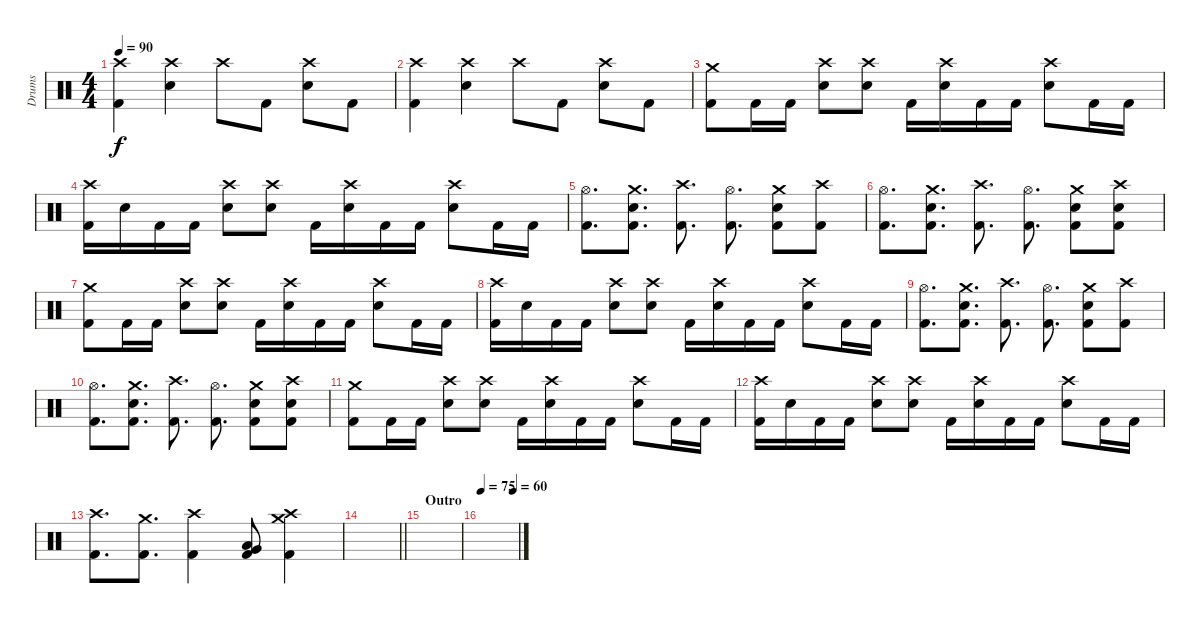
\track ("Drums" "Drums") {instrument percussion}
\staff {score}
\articulation defaults
\ts (4 4)
\tempo 90
\clef neutral
\ks c
("Crash high (hit)" "Kick (hit) 2").4{dy f} ("Snare (hit) 2" "Crash high (hit)").4 "Crash high (hit)".8 "Kick (hit) 2".8 ("Snare (hit) 2" "Crash high (hit)").8 "Kick (hit) 2".8 |
("Crash high (hit)" "Kick (hit) 2").4 ("Snare (hit) 2" "Crash high (hit)").4 "Crash high (hit)".8 "Kick (hit) 2".8 ("Snare (hit) 2" "Crash high (hit)").8 "Kick (hit) 2".8 |
("Crash medium (hit)" "Kick (hit) 2").8 "Kick (hit) 2".16 "Kick (hit) 2".16 ("Snare (hit) 2" "Crash high (hit)").8 ("Snare (hit) 2" "Crash high (hit)").8 "Kick (hit) 2".16 ("Snare (hit) 2" "Crash high (hit)").16 "Kick (hit) 2".16 "Kick (hit) 2".16 ("Snare (hit) 2" "Crash high (hit)").8 "Kick (hit) 2".16 "Kick (hit) 2".16 |
("Crash high (hit)" "Kick (hit) 2").16 "Snare (hit) 2".16 "Kick (hit) 2".16 "Kick (hit) 2".16 ("Snare (hit) 2" "Crash high (hit)").8 ("Snare (hit) 2" "Crash high (hit)").8 "Kick (hit) 2".16 ("Snare (hit) 2" "Crash high (hit)").16 "Kick (hit) 2".16 "Kick (hit) 2".16 ("Snare (hit) 2" "Crash high (hit)").8 "Kick (hit) 2".16 "Kick (hit) 2".16 |
("Hi-Hat (open)" "Kick (hit) 2").8{d} ("Snare (hit) 2" "Crash medium (hit)" "Kick (hit) 2").8{d} ("Crash high (hit)" "Kick (hit) 2").8{d} ("Hi-Hat (open)" "Kick (hit) 2").8{d} ("Snare (hit) 2" "Crash medium (hit)" "Kick (hit) 2").8 ("Crash high (hit)" "Kick (hit) 2").8 |
("Hi-Hat (open)" "Kick (hit) 2").8{d} ("Snare (hit) 2" "Crash medium (hit)" "Kick (hit) 2").8{d} ("Crash high (hit)" "Kick (hit) 2").8{d} ("Hi-Hat (open)" "Kick (hit) 2").8{d} ("Snare (hit) 2" "Crash medium (hit)" "Kick (hit) 2").8 ("Snare (hit) 2" "Crash high (hit)" "Kick (hit) 2").8 |
("Crash medium (hit)" "Kick (hit) 2").8 "Kick (hit) 2".16 "Kick (hit) 2".16 ("Snare (hit) 2" "Crash high (hit)").8 ("Snare (hit) 2" "Crash high (hit)").8 "Kick (hit) 2".16 ("Snare (hit) 2" "Crash high (hit)").16 "Kick (hit) 2".16 "Kick (hit) 2".16 ("Snare (hit) 2" "Crash high (hit)").8 "Kick (hit) 2".16 "Kick (hit) 2".16 |
("Crash high (hit)" "Kick (hit) 2").16 "Snare (hit) 2".16 "Kick (hit) 2".16 "Kick (hit) 2".16 ("Snare (hit) 2" "Crash high (hit)").8 ("Snare (hit) 2" "Crash high (hit)").8 "Kick (hit) 2".16 ("Snare (hit) 2" "Crash high (hit)").16 "Kick (hit) 2".16 "Kick (hit) 2".16 ("Snare (hit) 2" "Crash high (hit)").8 "Kick (hit) 2".16 "Kick (hit) 2".16 |
("Hi-Hat (open)" "Kick (hit) 2").8{d} ("Snare (hit) 2" "Crash medium (hit)" "Kick (hit) 2").8{d} ("Crash high (hit)" "Kick (hit) 2").8{d} ("Hi-Hat (open)" "Kick (hit) 2").8{d} ("Snare (hit) 2" "Crash medium (hit)" "Kick (hit) 2").8 ("Crash high (hit)" "Kick (hit) 2").8 |
("Hi-Hat (open)" "Kick (hit) 2").8{d} ("Snare (hit) 2" "Crash medium (hit)" "Kick (hit) 2").8{d} ("Crash high (hit)" "Kick (hit) 2").8{d} ("Hi-Hat (open)" "Kick (hit) 2").8{d} ("Snare (hit) 2" "Crash medium (hit)" "Kick (hit) 2").8 ("Snare (hit) 2" "Crash high (hit)" "Kick (hit) 2").8 |
("Crash medium (hit)" "Kick (hit) 2").8 "Kick (hit) 2".16 "Kick (hit) 2".16 ("Snare (hit) 2" "Crash high (hit)").8 ("Snare (hit) 2" "Crash high (hit)").8 "Kick (hit) 2".16 ("Snare (hit) 2" "Crash high (hit)").16 "Kick (hit) 2".16 "Kick (hit) 2".16 ("Snare (hit) 2" "Crash high (hit)").8 "Kick (hit) 2".16 "Kick (hit) 2".16 |
("Crash high (hit)" "Kick (hit) 2").16 "Snare (hit) 2".16 "Kick (hit) 2".16 "Kick (hit) 2".16 ("Snare (hit) 2" "Crash high (hit)").8 ("Snare (hit) 2" "Crash high (hit)").8 "Kick (hit) 2".16 ("Snare (hit) 2" "Crash high (hit)").16 "Kick (hit) 2".16 "Kick (hit) 2".16 ("Snare (hit) 2" "Crash high (hit)").8 "Kick (hit) 2".16 "Kick (hit) 2".16 |
("Crash high (hit)" "Kick (hit) 2").8{d} ("Crash medium (hit)" "Kick (hit) 2").8{d} ("Crash high (hit)" "Kick (hit) 2").4 ("Low Floor Tom (hit)" "Very Low Tom (hit)" "Kick (hit) 2").8 ("Crash medium (hit)" "Crash high (hit)" "Kick (hit) 2").4 |
\barLineRight lightlight
|
\section ("" "Outro")
|
\tempo 75
\tempo (60 0.875)
